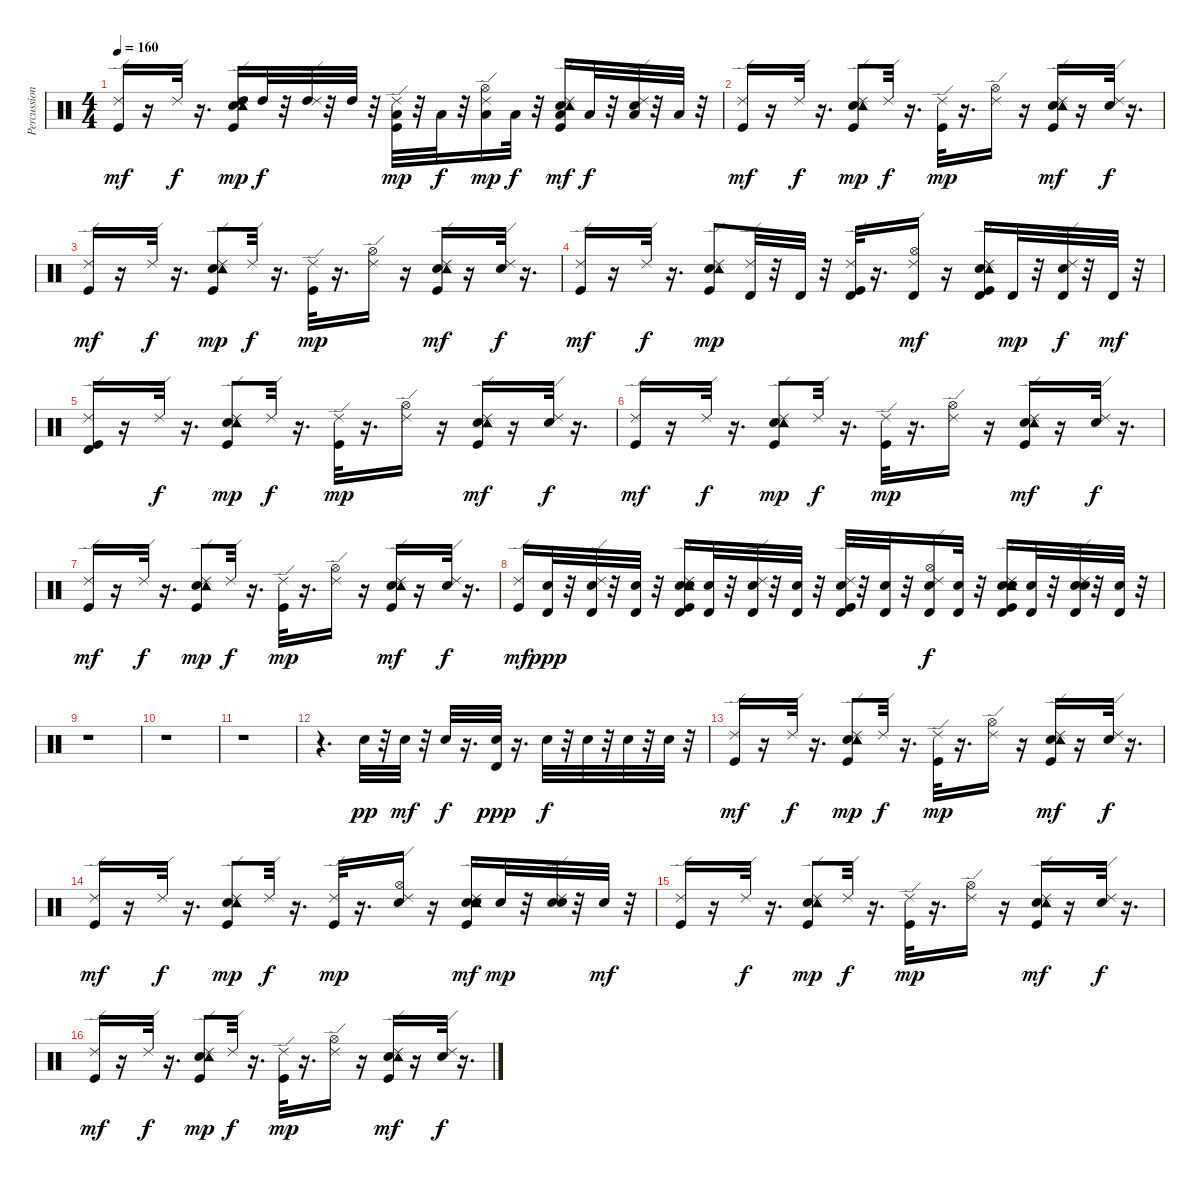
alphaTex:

\track ("Percussion" "Percussion") {instrument percussion}
\staff {score}
\articulation defaults
\ts (4 4)
\tempo 160
\clef neutral
\ks c
("Kick (hit)" "Ride (edge) 2").16{dy mf} r.16 "Ride (edge) 2".32{dy f} r.16{d} ("Kick (hit)" "Electric Snare (hit)" "High Tom (hit)" "Tambourine (hit)" "Ride (edge) 2").16{dy mp} "High Tom (hit)".32{dy f} r.32 ("High Tom (hit)" "Ride (edge) 2").32 r.32 "High Tom (hit)".32 r.32 ("Kick (hit)" "Low Tom (hit)" "Ride (edge) 2").32{dy mp} r.32 "Low Tom (hit)".32{dy f} r.32 ("Low Tom (hit)" "Hi-Hat (open)" "Ride (edge) 2").16{dy mp} "Low Tom (hit)".32{dy f} r.32 ("Kick (hit)" "Electric Snare (hit)" "Low Floor Tom (hit)" "Tambourine (hit)" "Ride (edge) 2").16{dy mf} "Low Floor Tom (hit)".32{dy f} r.32 ("Electric Snare (hit)" "Low Floor Tom (hit)" "Ride (edge) 2").32 r.32 "Low Floor Tom (hit)".32 r.32 |
("Kick (hit)" "Ride (edge) 2").16{dy mf} r.16 "Ride (edge) 2".32{dy f} r.16{d} ("Kick (hit)" "Electric Snare (hit)" "Tambourine (hit)" "Ride (edge) 2").8{dy mp} "Ride (edge) 2".32{dy f} r.16{d} ("Kick (hit)" "Ride (edge) 2").32{dy mp} r.16{d} ("Hi-Hat (open)" "Ride (edge) 2").16 r.16 ("Kick (hit)" "Electric Snare (hit)" "Tambourine (hit)" "Ride (edge) 2").16{dy mf} r.16 ("Electric Snare (hit)" "Ride (edge) 2").32{dy f} r.16{d} |
("Kick (hit)" "Ride (edge) 2").16{dy mf} r.16 "Ride (edge) 2".32{dy f} r.16{d} ("Kick (hit)" "Electric Snare (hit)" "Tambourine (hit)" "Ride (edge) 2").8{dy mp} "Ride (edge) 2".32{dy f} r.16{d} ("Kick (hit)" "Ride (edge) 2").32{dy mp} r.16{d} ("Hi-Hat (open)" "Ride (edge) 2").16 r.16 ("Kick (hit)" "Electric Snare (hit)" "Tambourine (hit)" "Ride (edge) 2").16{dy mf} r.16 ("Electric Snare (hit)" "Ride (edge) 2").32{dy f} r.16{d} |
("Kick (hit)" "Ride (edge) 2").16{dy mf} r.16 "Ride (edge) 2".32{dy f} r.16{d} ("Kick (hit)" "Electric Snare (hit)" "Tambourine (hit)" "Ride (edge) 2").8{dy mp} ("Ride (edge) 2" "Timbale high (hit)").32 r.32 "Timbale high (hit)".32 r.32 ("Kick (hit)" "Ride (edge) 2" "Timbale high (hit)").32 r.16{d} ("Hi-Hat (open)" "Ride (edge) 2" "Timbale high (hit)").16{dy mf} r.16 ("Kick (hit)" "Electric Snare (hit)" "Tambourine (hit)" "Ride (edge) 2" "Timbale high (hit)").16 "Timbale high (hit)".32{dy mp} r.32 ("Electric Snare (hit)" "Ride (edge) 2" "Timbale high (hit)").32{dy f} r.32 "Timbale high (hit)".32{dy mf} r.32 |
("Kick (hit)" "Ride (edge) 2" "Timbale high (hit)").16 r.16 "Ride (edge) 2".32{dy f} r.16{d} ("Kick (hit)" "Electric Snare (hit)" "Tambourine (hit)" "Ride (edge) 2").8{dy mp} "Ride (edge) 2".32{dy f} r.16{d} ("Kick (hit)" "Ride (edge) 2").32{dy mp} r.16{d} ("Hi-Hat (open)" "Ride (edge) 2").16 r.16 ("Kick (hit)" "Electric Snare (hit)" "Tambourine (hit)" "Ride (edge) 2").16{dy mf} r.16 ("Electric Snare (hit)" "Ride (edge) 2").32{dy f} r.16{d} |
("Kick (hit)" "Ride (edge) 2").16{dy mf} r.16 "Ride (edge) 2".32{dy f} r.16{d} ("Kick (hit)" "Electric Snare (hit)" "Tambourine (hit)" "Ride (edge) 2").8{dy mp} "Ride (edge) 2".32{dy f} r.16{d} ("Kick (hit)" "Ride (edge) 2").32{dy mp} r.16{d} ("Hi-Hat (open)" "Ride (edge) 2").16 r.16 ("Kick (hit)" "Electric Snare (hit)" "Tambourine (hit)" "Ride (edge) 2").16{dy mf} r.16 ("Electric Snare (hit)" "Ride (edge) 2").32{dy f} r.16{d} |
("Kick (hit)" "Ride (edge) 2").16{dy mf} r.16 "Ride (edge) 2".32{dy f} r.16{d} ("Kick (hit)" "Electric Snare (hit)" "Tambourine (hit)" "Ride (edge) 2").8{dy mp} "Ride (edge) 2".32{dy f} r.16{d} ("Kick (hit)" "Ride (edge) 2").32{dy mp} r.16{d} ("Hi-Hat (open)" "Ride (edge) 2").16 r.16 ("Kick (hit)" "Electric Snare (hit)" "Tambourine (hit)" "Ride (edge) 2").16{dy mf} r.16 ("Electric Snare (hit)" "Ride (edge) 2").32{dy f} r.16{d} |
("Kick (hit)" "Ride (edge) 2").16{dy mf} ("Snare (hit) 2" "Timbale high (hit)").32{dy ppp} r.32 ("Snare (hit) 2" "Ride (edge) 2" "Timbale high (hit)").32 r.32 ("Snare (hit) 2" "Timbale high (hit)").32 r.32 ("Kick (hit)" "Snare (hit) 2" "Electric Snare (hit)" "Tambourine (hit)" "Ride (edge) 2" "Timbale high (hit)").16 ("Snare (hit) 2" "Timbale high (hit)").32 r.32 ("Snare (hit) 2" "Ride (edge) 2" "Timbale high (hit)").32 r.32 ("Snare (hit) 2" "Timbale high (hit)").32 r.32 ("Kick (hit)" "Snare (hit) 2" "Ride (edge) 2" "Timbale high (hit)").32 r.32 ("Snare (hit) 2" "Timbale high (hit)").32 r.32 ("Snare (hit) 2" "Hi-Hat (open)" "Ride (edge) 2" "Timbale high (hit)").16{dy f} ("Snare (hit) 2" "Timbale high (hit)").32 r.32 ("Kick (hit)" "Snare (hit) 2" "Electric Snare (hit)" "Tambourine (hit)" "Ride (edge) 2" "Timbale high (hit)").16 ("Snare (hit) 2" "Timbale high (hit)").32 r.32 ("Snare (hit) 2" "Electric Snare (hit)" "Ride (edge) 2" "Timbale high (hit)").32 r.32 ("Snare (hit) 2" "Timbale high (hit)").32 r.32 |
r.1 |
r.1 |
r.1 |
r.4{d} "Snare (hit) 2".32{dy pp} r.32 "Snare (hit) 2".32{dy mf} r.32 "Snare (hit) 2".32{dy f} r.16{d} ("Snare (hit) 2" "Timbale high (hit)").32{dy ppp} r.16{d} "Snare (hit) 2".32{dy f} r.32 "Snare (hit) 2".32 r.32 "Snare (hit) 2".32 r.32 "Snare (hit) 2".32 r.32 |
("Kick (hit)" "Ride (edge) 2").16{dy mf} r.16 "Ride (edge) 2".32{dy f} r.16{d} ("Kick (hit)" "Electric Snare (hit)" "Tambourine (hit)" "Ride (edge) 2").8{dy mp} "Ride (edge) 2".32{dy f} r.16{d} ("Kick (hit)" "Ride (edge) 2").32{dy mp} r.16{d} ("Hi-Hat (open)" "Ride (edge) 2").16 r.16 ("Kick (hit)" "Electric Snare (hit)" "Tambourine (hit)" "Ride (edge) 2").16{dy mf} r.16 ("Electric Snare (hit)" "Ride (edge) 2").32{dy f} r.16{d} |
("Kick (hit)" "Ride (edge) 2").16{dy mf} r.16 "Ride (edge) 2".32{dy f} r.16{d} ("Kick (hit)" "Electric Snare (hit)" "Tambourine (hit)" "Ride (edge) 2").8{dy mp} "Ride (edge) 2".32{dy f} r.16{d} ("Kick (hit)" "Ride (edge) 2").32{dy mp} r.16{d} ("Snare (hit) 2" "Hi-Hat (open)" "Ride (edge) 2").16 r.16 ("Kick (hit)" "Snare (hit) 2" "Electric Snare (hit)" "Tambourine (hit)" "Ride (edge) 2").16{dy mf} "Snare (hit) 2".32{dy mp} r.32 ("Snare (hit) 2" "Electric Snare (hit)" "Ride (edge) 2").32 r.32 "Snare (hit) 2".32{dy mf} r.32 |
("Kick (hit)" "Ride (edge) 2").16 r.16 "Ride (edge) 2".32{dy f} r.16{d} ("Kick (hit)" "Electric Snare (hit)" "Tambourine (hit)" "Ride (edge) 2").8{dy mp} "Ride (edge) 2".32{dy f} r.16{d} ("Kick (hit)" "Ride (edge) 2").32{dy mp} r.16{d} ("Hi-Hat (open)" "Ride (edge) 2").16 r.16 ("Kick (hit)" "Electric Snare (hit)" "Tambourine (hit)" "Ride (edge) 2").16{dy mf} r.16 ("Electric Snare (hit)" "Ride (edge) 2").32{dy f} r.16{d} |
("Kick (hit)" "Ride (edge) 2").16{dy mf} r.16 "Ride (edge) 2".32{dy f} r.16{d} ("Kick (hit)" "Electric Snare (hit)" "Tambourine (hit)" "Ride (edge) 2").8{dy mp} "Ride (edge) 2".32{dy f} r.16{d} ("Kick (hit)" "Ride (edge) 2").32{dy mp} r.16{d} ("Hi-Hat (open)" "Ride (edge) 2").16 r.16 ("Kick (hit)" "Electric Snare (hit)" "Tambourine (hit)" "Ride (edge) 2").16{dy mf} r.16 ("Electric Snare (hit)" "Ride (edge) 2").32{dy f} r.16{d}
